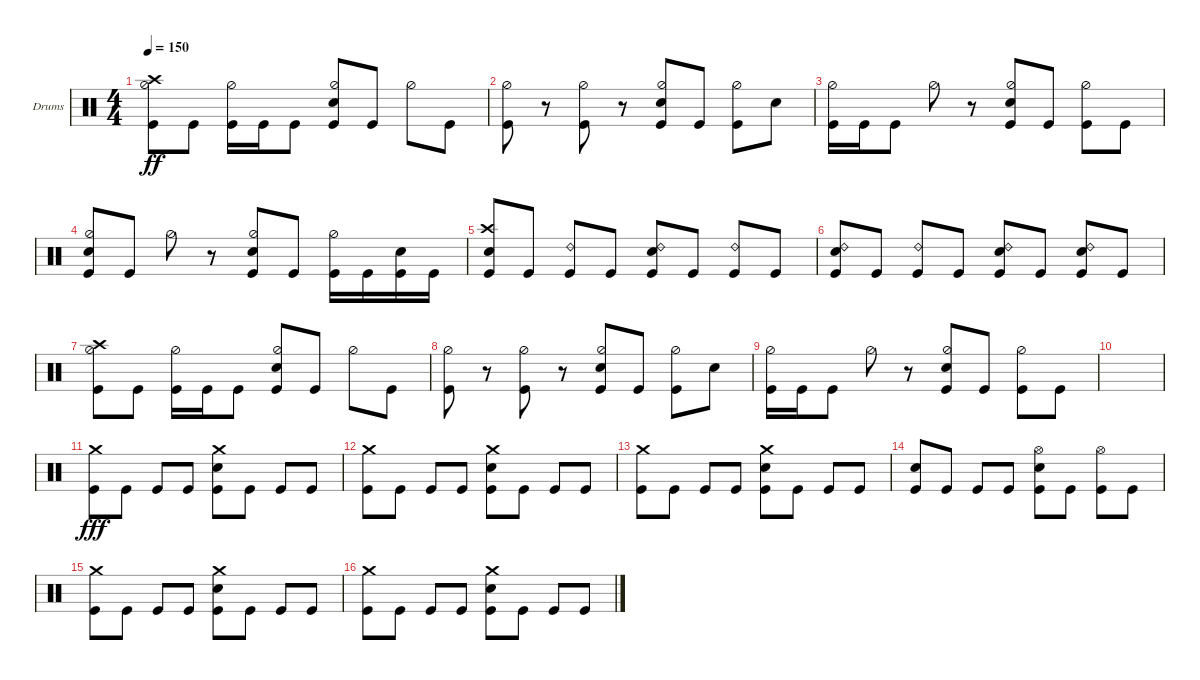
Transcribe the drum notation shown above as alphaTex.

\bracketExtendMode groupsimilarinstruments
\firstSystemTrackNameOrientation horizontal
\otherSystemsTrackNameOrientation horizontal
\track ("Corey" "Drums") {instrument percussion}
\staff {score}
\articulation defaults
\ts (4 4)
\tempo 150
\clef neutral
\ks c
("Kick (hit)" "Hi-Hat (half)" "Crash high (hit)").8{dy ff} "Kick (hit)".8 ("Kick (hit)" "Hi-Hat (half)").16 "Kick (hit)".16 "Kick (hit)".8 ("Kick (hit)" "Hi-Hat (half)" "Snare (hit) 2").8 "Kick (hit)".8 "Hi-Hat (half)".8 "Kick (hit)".8 |
("Kick (hit)" "Hi-Hat (half)").8 r.8 ("Kick (hit)" "Hi-Hat (half)").8 r.8 ("Kick (hit)" "Hi-Hat (half)" "Snare (hit) 2").8 "Kick (hit)".8 ("Kick (hit)" "Hi-Hat (half)").8 "Snare (hit) 2".8 |
("Kick (hit)" "Hi-Hat (half)").16 "Kick (hit)".16 "Kick (hit)".8 "Hi-Hat (half)".8 r.8 ("Kick (hit)" "Hi-Hat (half)" "Snare (hit) 2").8 "Kick (hit)".8 ("Kick (hit)" "Hi-Hat (half)").8 "Kick (hit)".8 |
("Kick (hit)" "Hi-Hat (half)" "Snare (hit) 2").8 "Kick (hit)".8 "Hi-Hat (half)".8 r.8 ("Kick (hit)" "Hi-Hat (half)" "Snare (hit) 2").8 "Kick (hit)".8 ("Kick (hit)" "Hi-Hat (half)").16 "Kick (hit)".16 ("Kick (hit)" "Snare (hit) 2").16 "Kick (hit)".16 |
("Crash high (hit)" "Kick (hit)" "Snare (hit) 2").8 "Kick (hit)".8 ("Kick (hit)" "Ride (bell) 2").8 "Kick (hit)".8 ("Kick (hit)" "Ride (bell) 2" "Snare (hit) 2").8 "Kick (hit)".8 ("Kick (hit)" "Ride (bell) 2").8 "Kick (hit)".8 |
("Kick (hit)" "Ride (bell) 2" "Snare (hit) 2").8 "Kick (hit)".8 ("Kick (hit)" "Ride (bell) 2").8 "Kick (hit)".8 ("Kick (hit)" "Ride (bell) 2" "Snare (hit) 2").8 "Kick (hit)".8 ("Kick (hit)" "Ride (bell) 2" "Snare (hit) 2").8 "Kick (hit)".8 |
("Kick (hit)" "Hi-Hat (half)" "Crash high (hit)").8 "Kick (hit)".8 ("Kick (hit)" "Hi-Hat (half)").16 "Kick (hit)".16 "Kick (hit)".8 ("Kick (hit)" "Hi-Hat (half)" "Snare (hit) 2").8 "Kick (hit)".8 "Hi-Hat (half)".8 "Kick (hit)".8 |
("Kick (hit)" "Hi-Hat (half)").8 r.8 ("Kick (hit)" "Hi-Hat (half)").8 r.8 ("Kick (hit)" "Hi-Hat (half)" "Snare (hit) 2").8 "Kick (hit)".8 ("Kick (hit)" "Hi-Hat (half)").8 "Snare (hit) 2".8 |
("Kick (hit)" "Hi-Hat (half)").16 "Kick (hit)".16 "Kick (hit)".8 "Hi-Hat (half)".8 r.8 ("Kick (hit)" "Hi-Hat (half)" "Snare (hit) 2").8 "Kick (hit)".8 ("Kick (hit)" "Hi-Hat (half)").8 "Kick (hit)".8 |
|
("Kick (hit)" "Crash medium (hit)").8{dy fff} "Kick (hit)".8 "Kick (hit)".8 "Kick (hit)".8 ("Kick (hit)" "Snare (hit) 2" "Crash medium (hit)").8 "Kick (hit)".8 "Kick (hit)".8 "Kick (hit)".8 |
("Kick (hit)" "Crash medium (hit)").8 "Kick (hit)".8 "Kick (hit)".8 "Kick (hit)".8 ("Kick (hit)" "Snare (hit) 2" "Crash medium (hit)").8 "Kick (hit)".8 "Kick (hit)".8 "Kick (hit)".8 |
("Kick (hit)" "Crash medium (hit)").8 "Kick (hit)".8 "Kick (hit)".8 "Kick (hit)".8 ("Kick (hit)" "Snare (hit) 2" "Crash medium (hit)").8 "Kick (hit)".8 "Kick (hit)".8 "Kick (hit)".8 |
("Kick (hit)" "Snare (hit) 2").8 "Kick (hit)".8 "Kick (hit)".8 "Kick (hit)".8 ("Kick (hit)" "Snare (hit) 2" "Hi-Hat (open)").8 "Kick (hit)".8 ("Kick (hit)" "Hi-Hat (open)").8 "Kick (hit)".8 |
("Kick (hit)" "Crash medium (hit)").8 "Kick (hit)".8 "Kick (hit)".8 "Kick (hit)".8 ("Kick (hit)" "Snare (hit) 2" "Crash medium (hit)").8 "Kick (hit)".8 "Kick (hit)".8 "Kick (hit)".8 |
("Kick (hit)" "Crash medium (hit)").8 "Kick (hit)".8 "Kick (hit)".8 "Kick (hit)".8 ("Kick (hit)" "Snare (hit) 2" "Crash medium (hit)").8 "Kick (hit)".8 "Kick (hit)".8 "Kick (hit)".8
